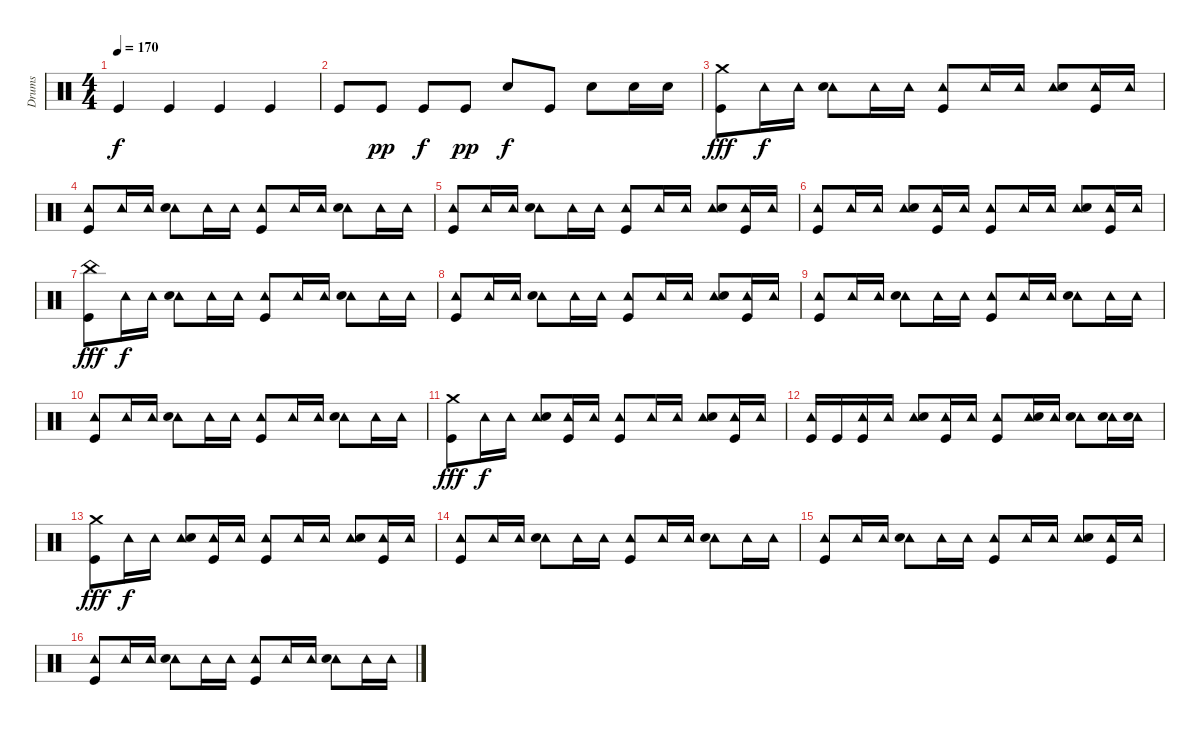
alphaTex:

\track ("Drums" "Drums") {instrument percussion}
\staff {score}
\articulation defaults
\ts (4 4)
\tempo 170
\clef neutral
\ks c "Kick (hit)".4{dy f} "Kick (hit)".4 "Kick (hit)".4 "Kick (hit)".4
|
"Kick (hit)".8 "Kick (hit)".8{dy pp} "Kick (hit)".8{dy f} "Kick (hit)".8{dy pp} "Electric Snare (hit)".8{dy f} "Kick (hit)".8 "Electric Snare (hit)".8 "Electric Snare (hit)".16 "Electric Snare (hit)".16 |
("Crash medium (hit)" "Kick (hit)").8{dy fff} "Tambourine (hit)".16{dy f} "Tambourine (hit)".16 ("Tambourine (hit)" "Electric Snare (hit)").8 "Tambourine (hit)".16 "Tambourine (hit)".16 ("Tambourine (hit)" "Kick (hit)").8 "Tambourine (hit)".16 "Tambourine (hit)".16 ("Tambourine (hit)" "Electric Snare (hit)").8 ("Tambourine (hit)" "Kick (hit)").16 "Tambourine (hit)".16 |
("Tambourine (hit)" "Kick (hit)").8 "Tambourine (hit)".16 "Tambourine (hit)".16 ("Tambourine (hit)" "Electric Snare (hit)").8 "Tambourine (hit)".16 "Tambourine (hit)".16 ("Tambourine (hit)" "Kick (hit)").8 "Tambourine (hit)".16 "Tambourine (hit)".16 ("Tambourine (hit)" "Electric Snare (hit)").8 "Tambourine (hit)".16 "Tambourine (hit)".16 |
("Tambourine (hit)" "Kick (hit)").8 "Tambourine (hit)".16 "Tambourine (hit)".16 ("Tambourine (hit)" "Electric Snare (hit)").8 "Tambourine (hit)".16 "Tambourine (hit)".16 ("Tambourine (hit)" "Kick (hit)").8 "Tambourine (hit)".16 "Tambourine (hit)".16 ("Tambourine (hit)" "Electric Snare (hit)").8 ("Tambourine (hit)" "Kick (hit)").16 "Tambourine (hit)".16 |
("Tambourine (hit)" "Kick (hit)").8 "Tambourine (hit)".16 "Tambourine (hit)".16 ("Tambourine (hit)" "Electric Snare (hit)").8 ("Tambourine (hit)" "Kick (hit)").16 "Tambourine (hit)".16 ("Tambourine (hit)" "Kick (hit)").8 "Tambourine (hit)".16 "Tambourine (hit)".16 ("Tambourine (hit)" "Electric Snare (hit)").8 ("Tambourine (hit)" "Kick (hit)").16 "Tambourine (hit)".16 |
("China (hit)" "Kick (hit)").8{dy fff} "Tambourine (hit)".16{dy f} "Tambourine (hit)".16 ("Tambourine (hit)" "Electric Snare (hit)").8 "Tambourine (hit)".16 "Tambourine (hit)".16 ("Tambourine (hit)" "Kick (hit)").8 "Tambourine (hit)".16 "Tambourine (hit)".16 ("Tambourine (hit)" "Electric Snare (hit)").8 "Tambourine (hit)".16 "Tambourine (hit)".16 |
("Tambourine (hit)" "Kick (hit)").8 "Tambourine (hit)".16 "Tambourine (hit)".16 ("Tambourine (hit)" "Electric Snare (hit)").8 "Tambourine (hit)".16 "Tambourine (hit)".16 ("Tambourine (hit)" "Kick (hit)").8 "Tambourine (hit)".16 "Tambourine (hit)".16 ("Tambourine (hit)" "Electric Snare (hit)").8 ("Tambourine (hit)" "Kick (hit)").16 "Tambourine (hit)".16 |
("Tambourine (hit)" "Kick (hit)").8 "Tambourine (hit)".16 "Tambourine (hit)".16 ("Tambourine (hit)" "Electric Snare (hit)").8 "Tambourine (hit)".16 "Tambourine (hit)".16 ("Tambourine (hit)" "Kick (hit)").8 "Tambourine (hit)".16 "Tambourine (hit)".16 ("Tambourine (hit)" "Electric Snare (hit)").8 "Tambourine (hit)".16 "Tambourine (hit)".16 |
("Tambourine (hit)" "Kick (hit)").8 "Tambourine (hit)".16 "Tambourine (hit)".16 ("Tambourine (hit)" "Electric Snare (hit)").8 "Tambourine (hit)".16 "Tambourine (hit)".16 ("Tambourine (hit)" "Kick (hit)").8 "Tambourine (hit)".16 "Tambourine (hit)".16 ("Tambourine (hit)" "Electric Snare (hit)").8 "Tambourine (hit)".16 "Tambourine (hit)".16 |
("Crash medium (hit)" "Kick (hit)").8{dy fff} "Tambourine (hit)".16{dy f} "Tambourine (hit)".16 ("Tambourine (hit)" "Electric Snare (hit)").8 ("Tambourine (hit)" "Kick (hit)").16 "Tambourine (hit)".16 ("Tambourine (hit)" "Kick (hit)").8 "Tambourine (hit)".16 "Tambourine (hit)".16 ("Tambourine (hit)" "Electric Snare (hit)").8 ("Tambourine (hit)" "Kick (hit)").16 "Tambourine (hit)".16 |
("Tambourine (hit)" "Kick (hit)").16 "Kick (hit)".16 ("Tambourine (hit)" "Kick (hit)").16 "Tambourine (hit)".16 ("Tambourine (hit)" "Electric Snare (hit)").8 ("Tambourine (hit)" "Kick (hit)").16 "Tambourine (hit)".16 ("Tambourine (hit)" "Kick (hit)").8 ("Tambourine (hit)" "Electric Snare (hit)").16 "Tambourine (hit)".16 ("Tambourine (hit)" "Electric Snare (hit)").8 ("Tambourine (hit)" "Electric Snare (hit)").16 ("Tambourine (hit)" "Electric Snare (hit)").16 |
("Crash medium (hit)" "Kick (hit)").8{dy fff} "Tambourine (hit)".16{dy f} "Tambourine (hit)".16 ("Tambourine (hit)" "Electric Snare (hit)").8 ("Tambourine (hit)" "Kick (hit)").16 "Tambourine (hit)".16 ("Tambourine (hit)" "Kick (hit)").8 "Tambourine (hit)".16 "Tambourine (hit)".16 ("Tambourine (hit)" "Electric Snare (hit)").8 ("Tambourine (hit)" "Kick (hit)").16 "Tambourine (hit)".16 |
("Tambourine (hit)" "Kick (hit)").8 "Tambourine (hit)".16 "Tambourine (hit)".16 ("Tambourine (hit)" "Electric Snare (hit)").8 "Tambourine (hit)".16 "Tambourine (hit)".16 ("Tambourine (hit)" "Kick (hit)").8 "Tambourine (hit)".16 "Tambourine (hit)".16 ("Tambourine (hit)" "Electric Snare (hit)").8 "Tambourine (hit)".16 "Tambourine (hit)".16 |
("Tambourine (hit)" "Kick (hit)").8 "Tambourine (hit)".16 "Tambourine (hit)".16 ("Tambourine (hit)" "Electric Snare (hit)").8 "Tambourine (hit)".16 "Tambourine (hit)".16 ("Tambourine (hit)" "Kick (hit)").8 "Tambourine (hit)".16 "Tambourine (hit)".16 ("Tambourine (hit)" "Electric Snare (hit)").8 ("Tambourine (hit)" "Kick (hit)").16 "Tambourine (hit)".16 |
("Tambourine (hit)" "Kick (hit)").8 "Tambourine (hit)".16 "Tambourine (hit)".16 ("Tambourine (hit)" "Electric Snare (hit)").8 "Tambourine (hit)".16 "Tambourine (hit)".16 ("Tambourine (hit)" "Kick (hit)").8 "Tambourine (hit)".16 "Tambourine (hit)".16 ("Tambourine (hit)" "Electric Snare (hit)").8 "Tambourine (hit)".16 "Tambourine (hit)".16
